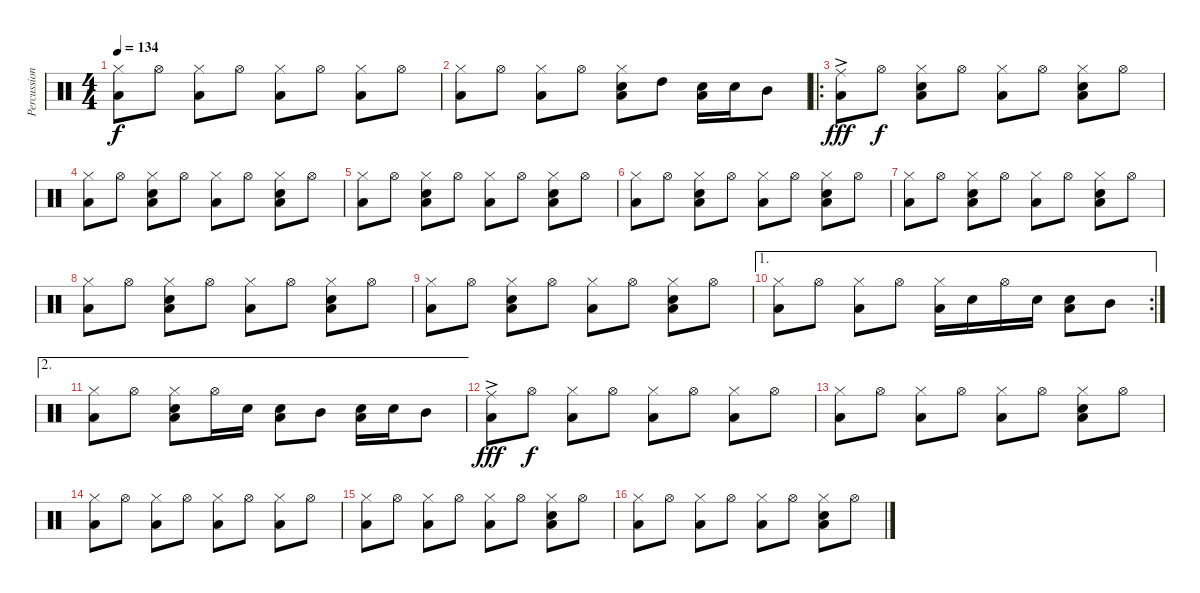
\track ("Percussion" "Percussion") {instrument percussion}
\staff {score}
\articulation defaults
\ts (4 4)
\tempo 134
\clef neutral
\ks c
("Hi-Hat (closed)" "Low Floor Tom (hit)").8{dy f} "Hi-Hat (open)".8 ("Hi-Hat (closed)" "Low Floor Tom (hit)").8 "Hi-Hat (open)".8 ("Hi-Hat (closed)" "Low Floor Tom (hit)").8 "Hi-Hat (open)".8 ("Hi-Hat (closed)" "Low Floor Tom (hit)").8 "Hi-Hat (open)".8 |
("Hi-Hat (closed)" "Low Floor Tom (hit)").8 "Hi-Hat (open)".8 ("Hi-Hat (closed)" "Low Floor Tom (hit)").8 "Hi-Hat (open)".8 ("Hi-Hat (closed)" "Snare (hit) 2" "Low Floor Tom (hit)").8 "High Tom (hit)".8 ("Snare (hit) 2" "Low Floor Tom (hit)").16 "Snare (hit) 2".16 "Mid Tom (hit)".8 |
\ro
("Ride (middle)"{ac} "Low Floor Tom (hit)").8{dy fff} "Hi-Hat (open)".8{dy f} ("Hi-Hat (closed)" "Snare (hit) 2" "Low Floor Tom (hit)").8 "Hi-Hat (open)".8 ("Hi-Hat (closed)" "Low Floor Tom (hit)").8 "Hi-Hat (open)".8 ("Hi-Hat (closed)" "Snare (hit) 2" "Low Floor Tom (hit)").8 "Hi-Hat (open)".8 |
("Hi-Hat (closed)" "Low Floor Tom (hit)").8 "Hi-Hat (open)".8 ("Hi-Hat (closed)" "Snare (hit) 2" "Low Floor Tom (hit)").8 "Hi-Hat (open)".8 ("Hi-Hat (closed)" "Low Floor Tom (hit)").8 "Hi-Hat (open)".8 ("Hi-Hat (closed)" "Snare (hit) 2" "Low Floor Tom (hit)").8 "Hi-Hat (open)".8 |
("Hi-Hat (closed)" "Low Floor Tom (hit)").8 "Hi-Hat (open)".8 ("Hi-Hat (closed)" "Snare (hit) 2" "Low Floor Tom (hit)").8 "Hi-Hat (open)".8 ("Hi-Hat (closed)" "Low Floor Tom (hit)").8 "Hi-Hat (open)".8 ("Hi-Hat (closed)" "Snare (hit) 2" "Low Floor Tom (hit)").8 "Hi-Hat (open)".8 |
("Hi-Hat (closed)" "Low Floor Tom (hit)").8 "Hi-Hat (open)".8 ("Hi-Hat (closed)" "Snare (hit) 2" "Low Floor Tom (hit)").8 "Hi-Hat (open)".8 ("Hi-Hat (closed)" "Low Floor Tom (hit)").8 "Hi-Hat (open)".8 ("Hi-Hat (closed)" "Snare (hit) 2" "Low Floor Tom (hit)").8 "Hi-Hat (open)".8 |
("Hi-Hat (closed)" "Low Floor Tom (hit)").8 "Hi-Hat (open)".8 ("Hi-Hat (closed)" "Snare (hit) 2" "Low Floor Tom (hit)").8 "Hi-Hat (open)".8 ("Hi-Hat (closed)" "Low Floor Tom (hit)").8 "Hi-Hat (open)".8 ("Hi-Hat (closed)" "Snare (hit) 2" "Low Floor Tom (hit)").8 "Hi-Hat (open)".8 |
("Hi-Hat (closed)" "Low Floor Tom (hit)").8 "Hi-Hat (open)".8 ("Hi-Hat (closed)" "Snare (hit) 2" "Low Floor Tom (hit)").8 "Hi-Hat (open)".8 ("Hi-Hat (closed)" "Low Floor Tom (hit)").8 "Hi-Hat (open)".8 ("Hi-Hat (closed)" "Snare (hit) 2" "Low Floor Tom (hit)").8 "Hi-Hat (open)".8 |
("Hi-Hat (closed)" "Low Floor Tom (hit)").8 "Hi-Hat (open)".8 ("Hi-Hat (closed)" "Snare (hit) 2" "Low Floor Tom (hit)").8 "Hi-Hat (open)".8 ("Hi-Hat (closed)" "Low Floor Tom (hit)").8 "Hi-Hat (open)".8 ("Hi-Hat (closed)" "Snare (hit) 2" "Low Floor Tom (hit)").8 "Hi-Hat (open)".8 |
\ae 1
\rc 2
("Hi-Hat (closed)" "Low Floor Tom (hit)").8 "Hi-Hat (open)".8 ("Hi-Hat (closed)" "Low Floor Tom (hit)").8 "Hi-Hat (open)".8 ("Hi-Hat (closed)" "Low Floor Tom (hit)").16 "Snare (hit) 2".16 "Hi-Hat (open)".16 "Snare (hit) 2".16 ("Snare (hit) 2" "Low Floor Tom (hit)").8 "Mid Tom (hit)".8 |
\ae 2
("Hi-Hat (closed)" "Low Floor Tom (hit)").8 "Hi-Hat (open)".8 ("Hi-Hat (closed)" "Snare (hit) 2" "Low Floor Tom (hit)").8 "Hi-Hat (open)".16 "Snare (hit) 2".16 ("Snare (hit) 2" "Low Floor Tom (hit)").8 "Mid Tom (hit)".8 ("Snare (hit) 2" "Low Floor Tom (hit)").16 "Snare (hit) 2".16 "Mid Tom (hit)".8 |
("Ride (middle)"{ac} "Low Floor Tom (hit)").8{dy fff} "Hi-Hat (open)".8{dy f} ("Hi-Hat (closed)" "Low Floor Tom (hit)").8 "Hi-Hat (open)".8 ("Hi-Hat (closed)" "Low Floor Tom (hit)").8 "Hi-Hat (open)".8 ("Hi-Hat (closed)" "Low Floor Tom (hit)").8 "Hi-Hat (open)".8 |
("Hi-Hat (closed)" "Low Floor Tom (hit)").8 "Hi-Hat (open)".8 ("Hi-Hat (closed)" "Low Floor Tom (hit)").8 "Hi-Hat (open)".8 ("Hi-Hat (closed)" "Low Floor Tom (hit)").8 "Hi-Hat (open)".8 ("Hi-Hat (closed)" "Snare (hit) 2" "Low Floor Tom (hit)").8 "Hi-Hat (open)".8 |
("Hi-Hat (closed)" "Low Floor Tom (hit)").8 "Hi-Hat (open)".8 ("Hi-Hat (closed)" "Low Floor Tom (hit)").8 "Hi-Hat (open)".8 ("Hi-Hat (closed)" "Low Floor Tom (hit)").8 "Hi-Hat (open)".8 ("Hi-Hat (closed)" "Low Floor Tom (hit)").8 "Hi-Hat (open)".8 |
("Hi-Hat (closed)" "Low Floor Tom (hit)").8 "Hi-Hat (open)".8 ("Hi-Hat (closed)" "Low Floor Tom (hit)").8 "Hi-Hat (open)".8 ("Hi-Hat (closed)" "Low Floor Tom (hit)").8 "Hi-Hat (open)".8 ("Hi-Hat (closed)" "Snare (hit) 2" "Low Floor Tom (hit)").8 "Hi-Hat (open)".8 |
("Hi-Hat (closed)" "Low Floor Tom (hit)").8 "Hi-Hat (open)".8 ("Hi-Hat (closed)" "Low Floor Tom (hit)").8 "Hi-Hat (open)".8 ("Hi-Hat (closed)" "Low Floor Tom (hit)").8 "Hi-Hat (open)".8 ("Hi-Hat (closed)" "Snare (hit) 2" "Low Floor Tom (hit)").8 "Hi-Hat (open)".8
